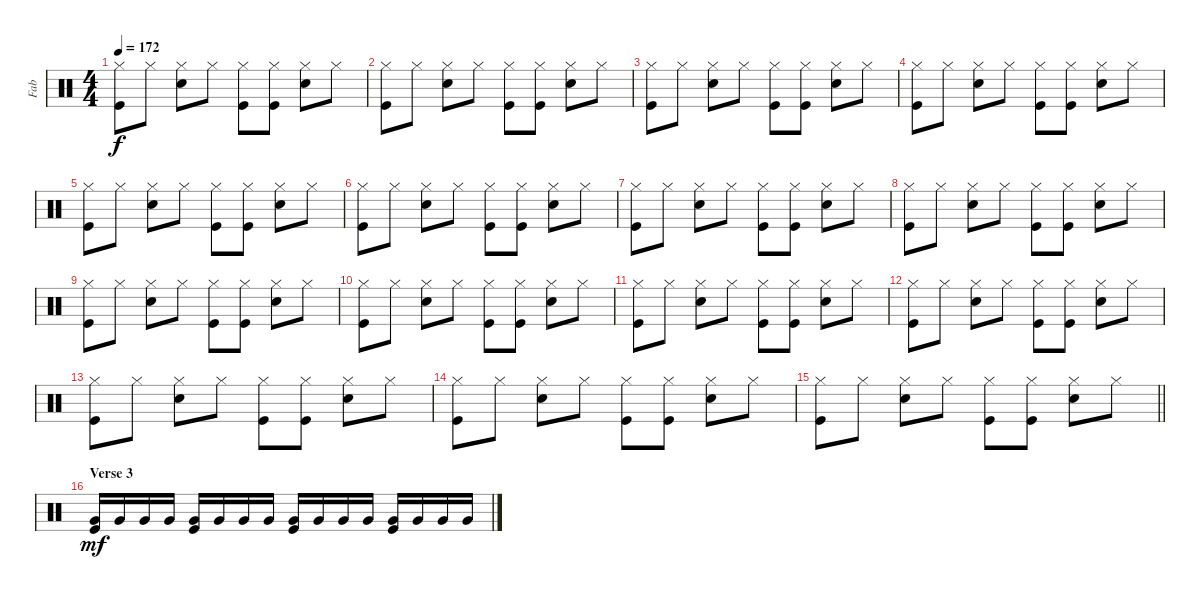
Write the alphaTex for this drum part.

\track ("Fab" "Fab") {instrument percussion}
\staff {score}
\articulation defaults
\ts (4 4)
\tempo 172
\clef neutral
\ks c
("Hi-Hat (closed)" "Kick (hit)").8{dy f} "Hi-Hat (closed)".8 ("Hi-Hat (closed)" "Snare (hit) 2").8 "Hi-Hat (closed)".8 ("Hi-Hat (closed)" "Kick (hit)").8 ("Hi-Hat (closed)" "Kick (hit)").8 ("Hi-Hat (closed)" "Snare (hit) 2").8 "Hi-Hat (closed)".8 |
("Hi-Hat (closed)" "Kick (hit)").8 "Hi-Hat (closed)".8 ("Hi-Hat (closed)" "Snare (hit) 2").8 "Hi-Hat (closed)".8 ("Hi-Hat (closed)" "Kick (hit)").8 ("Hi-Hat (closed)" "Kick (hit)").8 ("Hi-Hat (closed)" "Snare (hit) 2").8 "Hi-Hat (closed)".8 |
("Hi-Hat (closed)" "Kick (hit)").8 "Hi-Hat (closed)".8 ("Hi-Hat (closed)" "Snare (hit) 2").8 "Hi-Hat (closed)".8 ("Hi-Hat (closed)" "Kick (hit)").8 ("Hi-Hat (closed)" "Kick (hit)").8 ("Hi-Hat (closed)" "Snare (hit) 2").8 "Hi-Hat (closed)".8 |
("Hi-Hat (closed)" "Kick (hit)").8 "Hi-Hat (closed)".8 ("Hi-Hat (closed)" "Snare (hit) 2").8 "Hi-Hat (closed)".8 ("Hi-Hat (closed)" "Kick (hit)").8 ("Hi-Hat (closed)" "Kick (hit)").8 ("Hi-Hat (closed)" "Snare (hit) 2").8 "Hi-Hat (closed)".8 |
("Hi-Hat (closed)" "Kick (hit)").8 "Hi-Hat (closed)".8 ("Hi-Hat (closed)" "Snare (hit) 2").8 "Hi-Hat (closed)".8 ("Hi-Hat (closed)" "Kick (hit)").8 ("Hi-Hat (closed)" "Kick (hit)").8 ("Hi-Hat (closed)" "Snare (hit) 2").8 "Hi-Hat (closed)".8 |
("Hi-Hat (closed)" "Kick (hit)").8 "Hi-Hat (closed)".8 ("Hi-Hat (closed)" "Snare (hit) 2").8 "Hi-Hat (closed)".8 ("Hi-Hat (closed)" "Kick (hit)").8 ("Hi-Hat (closed)" "Kick (hit)").8 ("Hi-Hat (closed)" "Snare (hit) 2").8 "Hi-Hat (closed)".8 |
("Hi-Hat (closed)" "Kick (hit)").8 "Hi-Hat (closed)".8 ("Hi-Hat (closed)" "Snare (hit) 2").8 "Hi-Hat (closed)".8 ("Hi-Hat (closed)" "Kick (hit)").8 ("Hi-Hat (closed)" "Kick (hit)").8 ("Hi-Hat (closed)" "Snare (hit) 2").8 "Hi-Hat (closed)".8 |
("Hi-Hat (closed)" "Kick (hit)").8 "Hi-Hat (closed)".8 ("Hi-Hat (closed)" "Snare (hit) 2").8 "Hi-Hat (closed)".8 ("Hi-Hat (closed)" "Kick (hit)").8 ("Hi-Hat (closed)" "Kick (hit)").8 ("Hi-Hat (closed)" "Snare (hit) 2").8 "Hi-Hat (closed)".8 |
("Hi-Hat (closed)" "Kick (hit)").8 "Hi-Hat (closed)".8 ("Hi-Hat (closed)" "Snare (hit) 2").8 "Hi-Hat (closed)".8 ("Hi-Hat (closed)" "Kick (hit)").8 ("Hi-Hat (closed)" "Kick (hit)").8 ("Hi-Hat (closed)" "Snare (hit) 2").8 "Hi-Hat (closed)".8 |
("Hi-Hat (closed)" "Kick (hit)").8 "Hi-Hat (closed)".8 ("Hi-Hat (closed)" "Snare (hit) 2").8 "Hi-Hat (closed)".8 ("Hi-Hat (closed)" "Kick (hit)").8 ("Hi-Hat (closed)" "Kick (hit)").8 ("Hi-Hat (closed)" "Snare (hit) 2").8 "Hi-Hat (closed)".8 |
("Hi-Hat (closed)" "Kick (hit)").8 "Hi-Hat (closed)".8 ("Hi-Hat (closed)" "Snare (hit) 2").8 "Hi-Hat (closed)".8 ("Hi-Hat (closed)" "Kick (hit)").8 ("Hi-Hat (closed)" "Kick (hit)").8 ("Hi-Hat (closed)" "Snare (hit) 2").8 "Hi-Hat (closed)".8 |
("Hi-Hat (closed)" "Kick (hit)").8 "Hi-Hat (closed)".8 ("Hi-Hat (closed)" "Snare (hit) 2").8 "Hi-Hat (closed)".8 ("Hi-Hat (closed)" "Kick (hit)").8 ("Hi-Hat (closed)" "Kick (hit)").8 ("Hi-Hat (closed)" "Snare (hit) 2").8 "Hi-Hat (closed)".8 |
("Hi-Hat (closed)" "Kick (hit)").8 "Hi-Hat (closed)".8 ("Hi-Hat (closed)" "Snare (hit) 2").8 "Hi-Hat (closed)".8 ("Hi-Hat (closed)" "Kick (hit)").8 ("Hi-Hat (closed)" "Kick (hit)").8 ("Hi-Hat (closed)" "Snare (hit) 2").8 "Hi-Hat (closed)".8 |
("Hi-Hat (closed)" "Kick (hit)").8 "Hi-Hat (closed)".8 ("Hi-Hat (closed)" "Snare (hit) 2").8 "Hi-Hat (closed)".8 ("Hi-Hat (closed)" "Kick (hit)").8 ("Hi-Hat (closed)" "Kick (hit)").8 ("Hi-Hat (closed)" "Snare (hit) 2").8 "Hi-Hat (closed)".8 |
\barLineRight lightlight
("Hi-Hat (closed)" "Kick (hit)").8 "Hi-Hat (closed)".8 ("Hi-Hat (closed)" "Snare (hit) 2").8 "Hi-Hat (closed)".8 ("Hi-Hat (closed)" "Kick (hit)").8 ("Hi-Hat (closed)" "Kick (hit)").8 ("Hi-Hat (closed)" "Snare (hit) 2").8 "Hi-Hat (closed)".8 |
\section ("" "Verse 3")
("Very Low Tom (hit)" "Kick (hit)").16{dy mf} "Very Low Tom (hit)".16 "Very Low Tom (hit)".16 "Very Low Tom (hit)".16 ("Very Low Tom (hit)" "Kick (hit)").16 "Very Low Tom (hit)".16 "Very Low Tom (hit)".16 "Very Low Tom (hit)".16 ("Very Low Tom (hit)" "Kick (hit)").16 "Very Low Tom (hit)".16 "Very Low Tom (hit)".16 "Very Low Tom (hit)".16 ("Very Low Tom (hit)" "Kick (hit)").16 "Very Low Tom (hit)".16 "Very Low Tom (hit)".16 "Very Low Tom (hit)".16
